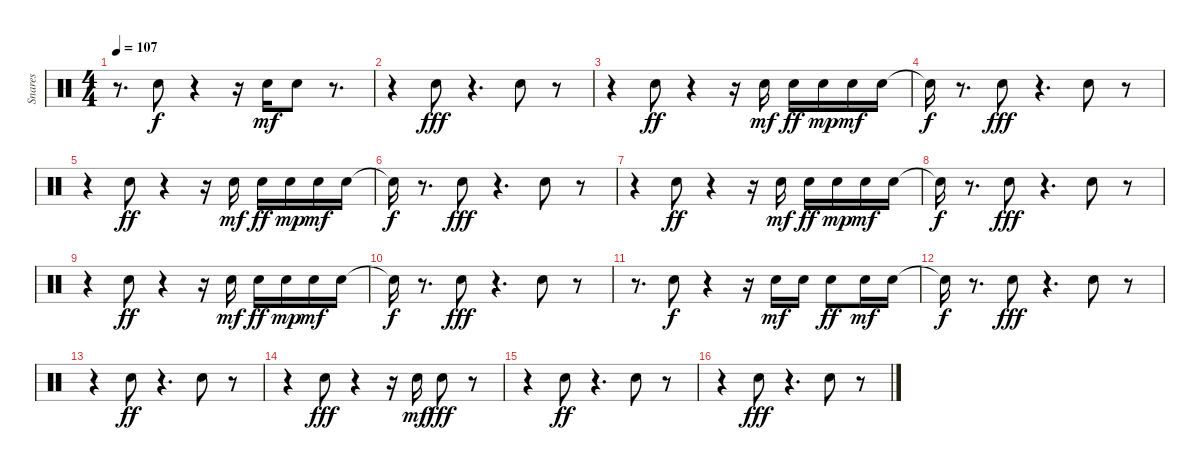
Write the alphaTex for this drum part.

\track ("Snares" "Snares") {instrument percussion}
\staff {score}
\articulation defaults
\ts (4 4)
\tempo 107
\clef neutral
\ks c
r.8{d dy fff} "Snare (hit) 2".8{dy f} r.4 r.16 "Snare (hit) 2".16{dy mf} "Snare (hit) 2".8 r.8{d} |
r.4 "Snare (hit) 2".8{dy fff} r.4{d} "Snare (hit) 2".8 r.8 |
r.4 "Snare (hit) 2".8{dy ff} r.4 r.16 "Snare (hit) 2".16{dy mf} "Snare (hit) 2".16{dy ff} "Snare (hit) 2".16{dy mp} "Snare (hit) 2".16{dy mf} "Snare (hit) 2".16 |
"Snare (hit)"{t}.16{dy f} r.8{d} "Snare (hit) 2".8{dy fff} r.4{d} "Snare (hit) 2".8 r.8 |
r.4 "Snare (hit) 2".8{dy ff} r.4 r.16 "Snare (hit) 2".16{dy mf} "Snare (hit) 2".16{dy ff} "Snare (hit) 2".16{dy mp} "Snare (hit) 2".16{dy mf} "Snare (hit) 2".16 |
"Snare (hit)"{t}.16{dy f} r.8{d} "Snare (hit) 2".8{dy fff} r.4{d} "Snare (hit) 2".8 r.8 |
r.4 "Snare (hit) 2".8{dy ff} r.4 r.16 "Snare (hit) 2".16{dy mf} "Snare (hit) 2".16{dy ff} "Snare (hit) 2".16{dy mp} "Snare (hit) 2".16{dy mf} "Snare (hit) 2".16 |
"Snare (hit)"{t}.16{dy f} r.8{d} "Snare (hit) 2".8{dy fff} r.4{d} "Snare (hit) 2".8 r.8 |
r.4 "Snare (hit) 2".8{dy ff} r.4 r.16 "Snare (hit) 2".16{dy mf} "Snare (hit) 2".16{dy ff} "Snare (hit) 2".16{dy mp} "Snare (hit) 2".16{dy mf} "Snare (hit) 2".16 |
"Snare (hit)"{t}.16{dy f} r.8{d} "Snare (hit) 2".8{dy fff} r.4{d} "Snare (hit) 2".8 r.8 |
r.8{d} "Snare (hit) 2".8{dy f} r.4 r.16 "Snare (hit) 2".16{dy mf} "Snare (hit) 2".16 "Snare (hit) 2".8{dy ff} "Snare (hit) 2".16{dy mf} "Snare (hit) 2".16 |
"Snare (hit)"{t}.16{dy f} r.8{d} "Snare (hit) 2".8{dy fff} r.4{d} "Snare (hit) 2".8 r.8 |
r.4 "Snare (hit) 2".8{dy ff} r.4{d} "Snare (hit) 2".8 r.8 |
r.4 "Snare (hit) 2".8{dy fff} r.4 r.16 "Snare (hit) 2".16{dy mf} "Snare (hit) 2".8{dy fff} r.8 |
r.4 "Snare (hit) 2".8{dy ff} r.4{d} "Snare (hit) 2".8 r.8 |
r.4 "Snare (hit) 2".8{dy fff} r.4{d} "Snare (hit) 2".8 r.8
